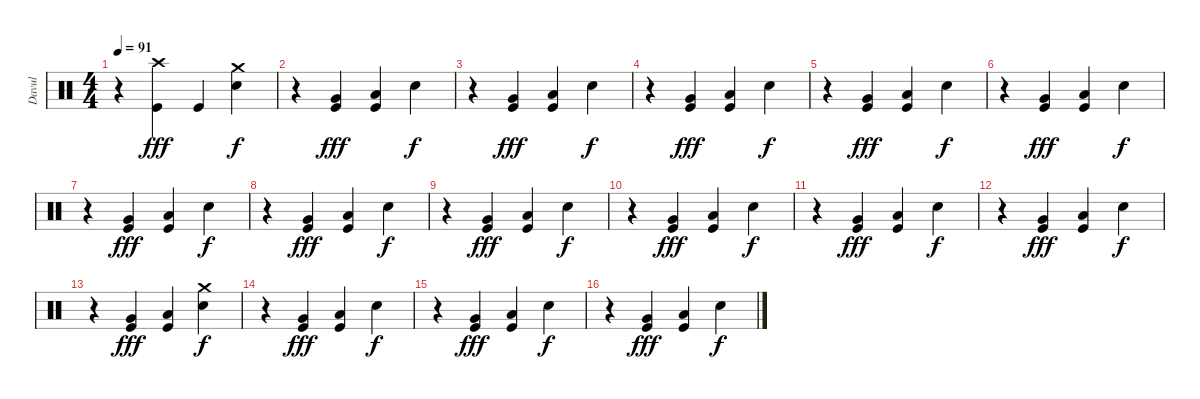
\track ("Davul" "Davul") {instrument percussion}
\staff {score}
\articulation defaults
\ts (4 4)
\tempo 91
\clef neutral
\ks c
r.4{dy f} ("Crash high (hit)" "Kick (hit)").4{dy fff} "Kick (hit)".4 ("Crash medium (hit)" "Snare (hit) 2").4{dy f} |
r.4 ("Very Low Tom (hit)" "Kick (hit)").4{dy fff} ("Low Floor Tom (hit)" "Kick (hit)").4 "Snare (hit) 2".4{dy f} |
r.4 ("Very Low Tom (hit)" "Kick (hit)").4{dy fff} ("Low Floor Tom (hit)" "Kick (hit)").4 "Snare (hit) 2".4{dy f} |
r.4 ("Very Low Tom (hit)" "Kick (hit)").4{dy fff} ("Low Floor Tom (hit)" "Kick (hit)").4 "Snare (hit) 2".4{dy f} |
r.4 ("Very Low Tom (hit)" "Kick (hit)").4{dy fff} ("Low Floor Tom (hit)" "Kick (hit)").4 "Snare (hit) 2".4{dy f} |
r.4 ("Very Low Tom (hit)" "Kick (hit)").4{dy fff} ("Low Floor Tom (hit)" "Kick (hit)").4 "Snare (hit) 2".4{dy f} |
r.4 ("Very Low Tom (hit)" "Kick (hit)").4{dy fff} ("Low Floor Tom (hit)" "Kick (hit)").4 "Snare (hit) 2".4{dy f} |
r.4 ("Very Low Tom (hit)" "Kick (hit)").4{dy fff} ("Low Floor Tom (hit)" "Kick (hit)").4 "Snare (hit) 2".4{dy f} |
r.4 ("Very Low Tom (hit)" "Kick (hit)").4{dy fff} ("Low Floor Tom (hit)" "Kick (hit)").4 "Snare (hit) 2".4{dy f} |
r.4 ("Very Low Tom (hit)" "Kick (hit)").4{dy fff} ("Low Floor Tom (hit)" "Kick (hit)").4 "Snare (hit) 2".4{dy f} |
r.4 ("Very Low Tom (hit)" "Kick (hit)").4{dy fff} ("Low Floor Tom (hit)" "Kick (hit)").4 "Snare (hit) 2".4{dy f} |
r.4 ("Very Low Tom (hit)" "Kick (hit)").4{dy fff} ("Low Floor Tom (hit)" "Kick (hit)").4 "Snare (hit) 2".4{dy f} |
r.4 ("Very Low Tom (hit)" "Kick (hit)").4{dy fff} ("Low Floor Tom (hit)" "Kick (hit)").4 ("Crash medium (hit)" "Snare (hit) 2").4{dy f} |
r.4 ("Very Low Tom (hit)" "Kick (hit)").4{dy fff} ("Low Floor Tom (hit)" "Kick (hit)").4 "Snare (hit) 2".4{dy f} |
r.4 ("Very Low Tom (hit)" "Kick (hit)").4{dy fff} ("Low Floor Tom (hit)" "Kick (hit)").4 "Snare (hit) 2".4{dy f} |
r.4 ("Very Low Tom (hit)" "Kick (hit)").4{dy fff} ("Low Floor Tom (hit)" "Kick (hit)").4 "Snare (hit) 2".4{dy f}
